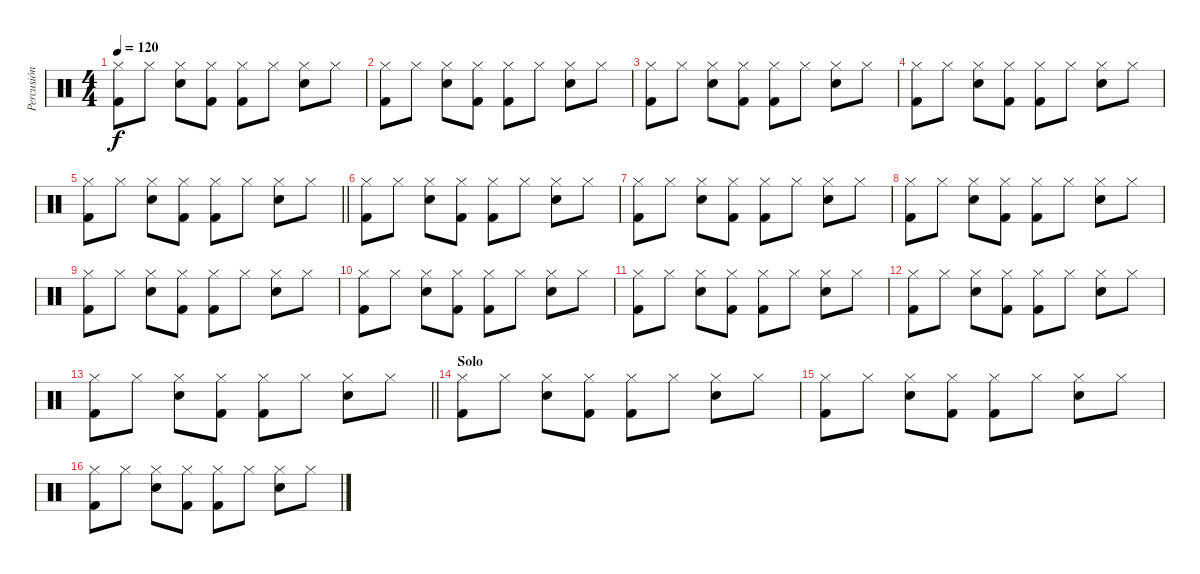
\track ("Percusión" "Percusión") {instrument percussion}
\staff {score}
\articulation defaults
\ts (4 4)
\tempo 120
\clef neutral
\ks c
("Hi-Hat (closed)" "Kick (hit) 2").8{dy f} "Hi-Hat (closed)".8 ("Hi-Hat (closed)" "Snare (hit) 2").8 ("Hi-Hat (closed)" "Kick (hit) 2").8 ("Hi-Hat (closed)" "Kick (hit) 2").8 "Hi-Hat (closed)".8 ("Hi-Hat (closed)" "Snare (hit) 2").8 "Hi-Hat (closed)".8 |
("Hi-Hat (closed)" "Kick (hit) 2").8 "Hi-Hat (closed)".8 ("Hi-Hat (closed)" "Snare (hit) 2").8 ("Hi-Hat (closed)" "Kick (hit) 2").8 ("Hi-Hat (closed)" "Kick (hit) 2").8 "Hi-Hat (closed)".8 ("Hi-Hat (closed)" "Snare (hit) 2").8 "Hi-Hat (closed)".8 |
("Hi-Hat (closed)" "Kick (hit) 2").8 "Hi-Hat (closed)".8 ("Hi-Hat (closed)" "Snare (hit) 2").8 ("Hi-Hat (closed)" "Kick (hit) 2").8 ("Hi-Hat (closed)" "Kick (hit) 2").8 "Hi-Hat (closed)".8 ("Hi-Hat (closed)" "Snare (hit) 2").8 "Hi-Hat (closed)".8 |
("Hi-Hat (closed)" "Kick (hit) 2").8 "Hi-Hat (closed)".8 ("Hi-Hat (closed)" "Snare (hit) 2").8 ("Hi-Hat (closed)" "Kick (hit) 2").8 ("Hi-Hat (closed)" "Kick (hit) 2").8 "Hi-Hat (closed)".8 ("Hi-Hat (closed)" "Snare (hit) 2").8 "Hi-Hat (closed)".8 |
\barLineRight lightlight
("Hi-Hat (closed)" "Kick (hit) 2").8 "Hi-Hat (closed)".8 ("Hi-Hat (closed)" "Snare (hit) 2").8 ("Hi-Hat (closed)" "Kick (hit) 2").8 ("Hi-Hat (closed)" "Kick (hit) 2").8 "Hi-Hat (closed)".8 ("Hi-Hat (closed)" "Snare (hit) 2").8 "Hi-Hat (closed)".8 |
("Hi-Hat (closed)" "Kick (hit) 2").8 "Hi-Hat (closed)".8 ("Hi-Hat (closed)" "Snare (hit) 2").8 ("Hi-Hat (closed)" "Kick (hit) 2").8 ("Hi-Hat (closed)" "Kick (hit) 2").8 "Hi-Hat (closed)".8 ("Hi-Hat (closed)" "Snare (hit) 2").8 "Hi-Hat (closed)".8 |
("Hi-Hat (closed)" "Kick (hit) 2").8 "Hi-Hat (closed)".8 ("Hi-Hat (closed)" "Snare (hit) 2").8 ("Hi-Hat (closed)" "Kick (hit) 2").8 ("Hi-Hat (closed)" "Kick (hit) 2").8 "Hi-Hat (closed)".8 ("Hi-Hat (closed)" "Snare (hit) 2").8 "Hi-Hat (closed)".8 |
("Hi-Hat (closed)" "Kick (hit) 2").8 "Hi-Hat (closed)".8 ("Hi-Hat (closed)" "Snare (hit) 2").8 ("Hi-Hat (closed)" "Kick (hit) 2").8 ("Hi-Hat (closed)" "Kick (hit) 2").8 "Hi-Hat (closed)".8 ("Hi-Hat (closed)" "Snare (hit) 2").8 "Hi-Hat (closed)".8 |
("Hi-Hat (closed)" "Kick (hit) 2").8 "Hi-Hat (closed)".8 ("Hi-Hat (closed)" "Snare (hit) 2").8 ("Hi-Hat (closed)" "Kick (hit) 2").8 ("Hi-Hat (closed)" "Kick (hit) 2").8 "Hi-Hat (closed)".8 ("Hi-Hat (closed)" "Snare (hit) 2").8 "Hi-Hat (closed)".8 |
("Hi-Hat (closed)" "Kick (hit) 2").8 "Hi-Hat (closed)".8 ("Hi-Hat (closed)" "Snare (hit) 2").8 ("Hi-Hat (closed)" "Kick (hit) 2").8 ("Hi-Hat (closed)" "Kick (hit) 2").8 "Hi-Hat (closed)".8 ("Hi-Hat (closed)" "Snare (hit) 2").8 "Hi-Hat (closed)".8 |
("Hi-Hat (closed)" "Kick (hit) 2").8 "Hi-Hat (closed)".8 ("Hi-Hat (closed)" "Snare (hit) 2").8 ("Hi-Hat (closed)" "Kick (hit) 2").8 ("Hi-Hat (closed)" "Kick (hit) 2").8 "Hi-Hat (closed)".8 ("Hi-Hat (closed)" "Snare (hit) 2").8 "Hi-Hat (closed)".8 |
("Hi-Hat (closed)" "Kick (hit) 2").8 "Hi-Hat (closed)".8 ("Hi-Hat (closed)" "Snare (hit) 2").8 ("Hi-Hat (closed)" "Kick (hit) 2").8 ("Hi-Hat (closed)" "Kick (hit) 2").8 "Hi-Hat (closed)".8 ("Hi-Hat (closed)" "Snare (hit) 2").8 "Hi-Hat (closed)".8 |
\barLineRight lightlight
("Hi-Hat (closed)" "Kick (hit) 2").8 "Hi-Hat (closed)".8 ("Hi-Hat (closed)" "Snare (hit) 2").8 ("Hi-Hat (closed)" "Kick (hit) 2").8 ("Hi-Hat (closed)" "Kick (hit) 2").8 "Hi-Hat (closed)".8 ("Hi-Hat (closed)" "Snare (hit) 2").8 "Hi-Hat (closed)".8 |
\section ("" "Solo")
("Hi-Hat (closed)" "Kick (hit) 2").8 "Hi-Hat (closed)".8 ("Hi-Hat (closed)" "Snare (hit) 2").8 ("Hi-Hat (closed)" "Kick (hit) 2").8 ("Hi-Hat (closed)" "Kick (hit) 2").8 "Hi-Hat (closed)".8 ("Hi-Hat (closed)" "Snare (hit) 2").8 "Hi-Hat (closed)".8 |
("Hi-Hat (closed)" "Kick (hit) 2").8 "Hi-Hat (closed)".8 ("Hi-Hat (closed)" "Snare (hit) 2").8 ("Hi-Hat (closed)" "Kick (hit) 2").8 ("Hi-Hat (closed)" "Kick (hit) 2").8 "Hi-Hat (closed)".8 ("Hi-Hat (closed)" "Snare (hit) 2").8 "Hi-Hat (closed)".8 |
("Hi-Hat (closed)" "Kick (hit) 2").8 "Hi-Hat (closed)".8 ("Hi-Hat (closed)" "Snare (hit) 2").8 ("Hi-Hat (closed)" "Kick (hit) 2").8 ("Hi-Hat (closed)" "Kick (hit) 2").8 "Hi-Hat (closed)".8 ("Hi-Hat (closed)" "Snare (hit) 2").8 "Hi-Hat (closed)".8
